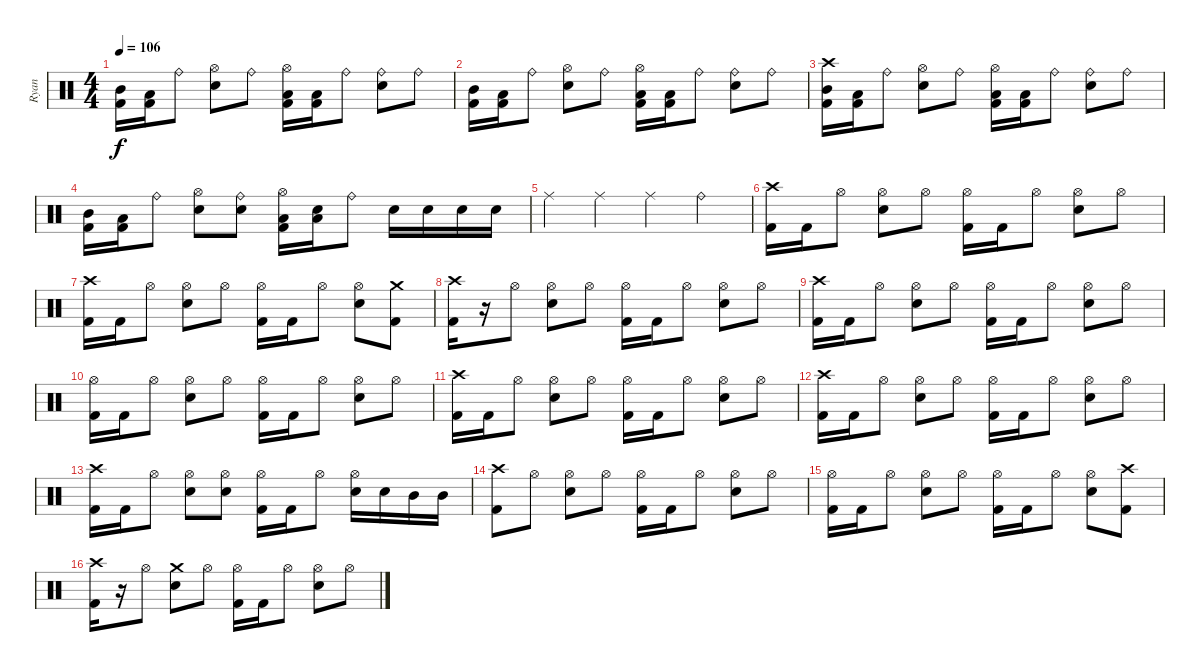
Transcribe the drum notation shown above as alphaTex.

\track ("Ryan" "Ryan") {instrument percussion}
\staff {score}
\articulation defaults
\ts (4 4)
\tempo 106
\clef neutral
\ks c
("Mid Tom (hit)" "Kick (hit) 2").16{dy f} ("Low Tom (hit)" "Kick (hit) 2").16 "Ride (bell)".8 ("Hi-Hat (open)" "Electric Snare (hit)").8 "Ride (bell)".8 ("Hi-Hat (open)" "Low Tom (hit)" "Kick (hit) 2").16 ("Low Tom (hit)" "Kick (hit) 2").16 "Ride (bell)".8 ("Ride (bell)" "Electric Snare (hit)").8 "Ride (bell)".8 |
("Mid Tom (hit)" "Kick (hit) 2").16 ("Low Tom (hit)" "Kick (hit) 2").16 "Ride (bell)".8 ("Hi-Hat (open)" "Electric Snare (hit)").8 "Ride (bell)".8 ("Hi-Hat (open)" "Low Tom (hit)" "Kick (hit) 2").16 ("Low Tom (hit)" "Kick (hit) 2").16 "Ride (bell)".8 ("Ride (bell)" "Electric Snare (hit)").8 "Ride (bell)".8 |
("Crash high (hit)" "Mid Tom (hit)" "Kick (hit) 2").16 ("Low Tom (hit)" "Kick (hit) 2").16 "Ride (bell)".8 ("Hi-Hat (open)" "Electric Snare (hit)").8 "Ride (bell)".8 ("Hi-Hat (open)" "Low Tom (hit)" "Kick (hit) 2").16 ("Low Tom (hit)" "Kick (hit) 2").16 "Ride (bell)".8 ("Ride (bell)" "Electric Snare (hit)").8 "Ride (bell)".8 |
("Mid Tom (hit)" "Kick (hit) 2").16 ("Low Tom (hit)" "Kick (hit) 2").16 "Ride (bell)".8 ("Hi-Hat (open)" "Electric Snare (hit)").8 ("Ride (bell)" "Electric Snare (hit)").8 ("Hi-Hat (open)" "Low Tom (hit)" "Kick (hit) 2").16 ("Low Tom (hit)" "Electric Snare (hit)").16 "Ride (bell)".8 "Electric Snare (hit)".16 "Electric Snare (hit)".16 "Electric Snare (hit)".16 "Electric Snare (hit)".16 |
"Ride (middle)".4 "Ride (middle)".4 "Ride (middle)".4 "Ride (bell)".4 |
("Crash high (hit)" "Kick (hit) 2").16 "Kick (hit) 2".16 "Hi-Hat (open)".8 ("Hi-Hat (open)" "Electric Snare (hit)").8 "Hi-Hat (open)".8 ("Hi-Hat (open)" "Kick (hit) 2").16 "Kick (hit) 2".16 "Hi-Hat (open)".8 ("Hi-Hat (open)" "Electric Snare (hit)").8 "Hi-Hat (open)".8 |
("Crash high (hit)" "Kick (hit) 2").16 "Kick (hit) 2".16 "Hi-Hat (open)".8 ("Hi-Hat (open)" "Electric Snare (hit)").8 "Hi-Hat (open)".8 ("Hi-Hat (open)" "Kick (hit) 2").16 "Kick (hit) 2".16 "Hi-Hat (open)".8 ("Hi-Hat (open)" "Electric Snare (hit)").8 ("Crash medium (hit)" "Kick (hit) 2").8 |
("Crash high (hit)" "Kick (hit) 2").16 r.16 "Hi-Hat (open)".8 ("Hi-Hat (open)" "Electric Snare (hit)").8 "Hi-Hat (open)".8 ("Hi-Hat (open)" "Kick (hit) 2").16 "Kick (hit) 2".16 "Hi-Hat (open)".8 ("Hi-Hat (open)" "Electric Snare (hit)").8 "Hi-Hat (open)".8 |
("Crash high (hit)" "Kick (hit) 2").16 "Kick (hit) 2".16 "Hi-Hat (open)".8 ("Hi-Hat (open)" "Electric Snare (hit)").8 "Hi-Hat (open)".8 ("Hi-Hat (open)" "Kick (hit) 2").16 "Kick (hit) 2".16 "Hi-Hat (open)".8 ("Hi-Hat (open)" "Electric Snare (hit)").8 "Hi-Hat (open)".8 |
("Hi-Hat (open)" "Kick (hit) 2").16 "Kick (hit) 2".16 "Hi-Hat (open)".8 ("Hi-Hat (open)" "Electric Snare (hit)").8 "Hi-Hat (open)".8 ("Hi-Hat (open)" "Kick (hit) 2").16 "Kick (hit) 2".16 "Hi-Hat (open)".8 ("Hi-Hat (open)" "Electric Snare (hit)").8 "Hi-Hat (open)".8 |
("Crash high (hit)" "Kick (hit) 2").16 "Kick (hit) 2".16 "Hi-Hat (open)".8 ("Hi-Hat (open)" "Electric Snare (hit)").8 "Hi-Hat (open)".8 ("Hi-Hat (open)" "Kick (hit) 2").16 "Kick (hit) 2".16 "Hi-Hat (open)".8 ("Hi-Hat (open)" "Electric Snare (hit)").8 "Hi-Hat (open)".8 |
("Crash high (hit)" "Kick (hit) 2").16 "Kick (hit) 2".16 "Hi-Hat (open)".8 ("Hi-Hat (open)" "Electric Snare (hit)").8 "Hi-Hat (open)".8 ("Hi-Hat (open)" "Kick (hit) 2").16 "Kick (hit) 2".16 "Hi-Hat (open)".8 ("Hi-Hat (open)" "Electric Snare (hit)").8 "Hi-Hat (open)".8 |
("Crash high (hit)" "Kick (hit) 2").16 "Kick (hit) 2".16 "Hi-Hat (open)".8 ("Hi-Hat (open)" "Electric Snare (hit)").8 ("Hi-Hat (open)" "Electric Snare (hit)").8 ("Hi-Hat (open)" "Kick (hit) 2").16 "Kick (hit) 2".16 "Hi-Hat (open)".8 ("Hi-Hat (open)" "Electric Snare (hit)").16 "Electric Snare (hit)".16 "Mid Tom (hit)".16 "Mid Tom (hit)".16 |
("Crash high (hit)" "Kick (hit) 2").8 "Hi-Hat (open)".8 ("Hi-Hat (open)" "Electric Snare (hit)").8 "Hi-Hat (open)".8 ("Hi-Hat (open)" "Kick (hit) 2").16 "Kick (hit) 2".16 "Hi-Hat (open)".8 ("Hi-Hat (open)" "Electric Snare (hit)").8 "Hi-Hat (open)".8 |
("Hi-Hat (open)" "Kick (hit) 2").16 "Kick (hit) 2".16 "Hi-Hat (open)".8 ("Hi-Hat (open)" "Electric Snare (hit)").8 "Hi-Hat (open)".8 ("Hi-Hat (open)" "Kick (hit) 2").16 "Kick (hit) 2".16 "Hi-Hat (open)".8 ("Hi-Hat (open)" "Electric Snare (hit)").8 ("Crash high (hit)" "Kick (hit) 2").8 |
("Crash high (hit)" "Kick (hit) 2").16 r.16 "Hi-Hat (open)".8 ("Crash medium (hit)" "Electric Snare (hit)").8 "Hi-Hat (open)".8 ("Hi-Hat (open)" "Kick (hit) 2").16 "Kick (hit) 2".16 "Hi-Hat (open)".8 ("Hi-Hat (open)" "Electric Snare (hit)").8 "Hi-Hat (open)".8
